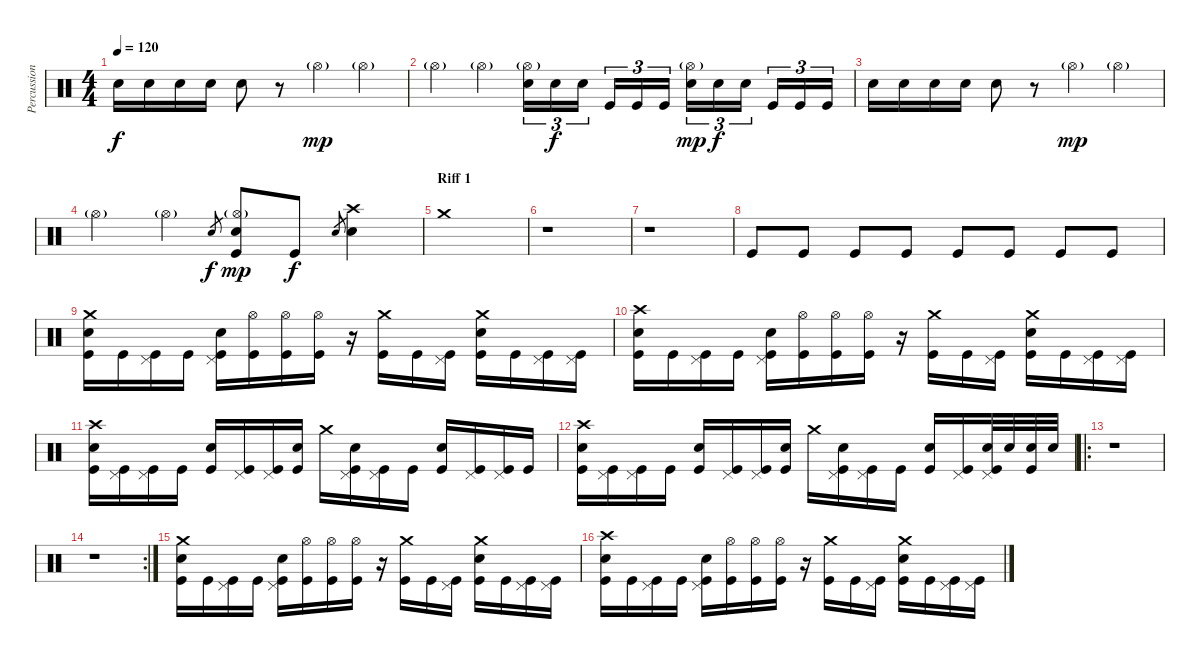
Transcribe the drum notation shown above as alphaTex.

\track ("Percussions" "Percussion") {instrument percussion}
\staff {score}
\articulation defaults
\ts (4 4)
\tempo 120
\clef neutral
\ks c "Electric Snare (hit)".16{dy f} "Electric Snare (hit)".16 "Electric Snare (hit)".16 "Electric Snare (hit)".16 "Electric Snare (hit)".8
r.8 "Hi-Hat (open)"{g}.4{dy mp} "Hi-Hat (open)"{g}.4 |
"Hi-Hat (open)"{g}.4 "Hi-Hat (open)"{g}.4 ("Hi-Hat (open)"{g} "Electric Snare (hit)").16{tu (3 2)} "Electric Snare (hit)".16{tu (3 2) dy f} "Electric Snare (hit)".16{tu (3 2)} "Kick (hit)".16{tu (3 2)} "Kick (hit)".16{tu (3 2)} "Kick (hit)".16{tu (3 2)} ("Hi-Hat (open)"{g} "Electric Snare (hit)").16{tu (3 2) dy mp} "Electric Snare (hit)".16{tu (3 2) dy f} "Electric Snare (hit)".16{tu (3 2)} "Kick (hit)".16{tu (3 2)} "Kick (hit)".16{tu (3 2)} "Kick (hit)".16{tu (3 2)} |
"Electric Snare (hit)".16 "Electric Snare (hit)".16 "Electric Snare (hit)".16 "Electric Snare (hit)".16 "Electric Snare (hit)".8 r.8 "Hi-Hat (open)"{g}.4{dy mp} "Hi-Hat (open)"{g}.4 |
"Hi-Hat (open)"{g}.4 "Hi-Hat (open)"{g}.4 "Electric Snare (hit)".8{gr dy f} ("Hi-Hat (open)"{g} "Electric Snare (hit)" "Kick (hit)").8{dy mp} "Kick (hit)".8{dy f} "Electric Snare (hit)".8{gr} ("Crash high (hit)" "Electric Snare (hit)").4 |
\section ("" "Riff 1")
"Crash medium (hit)".1 |
r.1 |
r.1 |
"Kick (hit)".8 "Kick (hit)".8 "Kick (hit)".8 "Kick (hit)".8 "Kick (hit)".8 "Kick (hit)".8 "Kick (hit)".8 "Kick (hit)".8 |
("Crash medium (hit)" "Kick (hit)" "Electric Snare (hit)").16 "Kick (hit)".16 ("Pedal Hi-Hat (hit)" "Kick (hit)").16 "Kick (hit)".16 ("Pedal Hi-Hat (hit)" "Kick (hit)" "Electric Snare (hit)").16 ("Hi-Hat (open)" "Kick (hit)").16 ("Hi-Hat (open)" "Kick (hit)").16 ("Hi-Hat (open)" "Kick (hit)").16 r.16 ("Crash medium (hit)" "Kick (hit)").16 "Kick (hit)".16 ("Pedal Hi-Hat (hit)" "Kick (hit)").16 ("Crash medium (hit)" "Kick (hit)" "Electric Snare (hit)").16 "Kick (hit)".16 ("Pedal Hi-Hat (hit)" "Kick (hit)").16 ("Pedal Hi-Hat (hit)" "Kick (hit)").16 |
("Crash high (hit)" "Kick (hit)" "Electric Snare (hit)").16 "Kick (hit)".16 ("Pedal Hi-Hat (hit)" "Kick (hit)").16 "Kick (hit)".16 ("Pedal Hi-Hat (hit)" "Kick (hit)" "Electric Snare (hit)").16 ("Hi-Hat (open)" "Kick (hit)").16 ("Hi-Hat (open)" "Kick (hit)").16 ("Hi-Hat (open)" "Kick (hit)").16 r.16 ("Crash medium (hit)" "Kick (hit)").16 "Kick (hit)".16 ("Pedal Hi-Hat (hit)" "Kick (hit)").16 ("Crash medium (hit)" "Kick (hit)" "Electric Snare (hit)").16 "Kick (hit)".16 ("Pedal Hi-Hat (hit)" "Kick (hit)").16 ("Pedal Hi-Hat (hit)" "Kick (hit)").16 |
("Crash high (hit)" "Electric Snare (hit)" "Kick (hit)").16 ("Pedal Hi-Hat (hit)" "Kick (hit)").16 ("Pedal Hi-Hat (hit)" "Kick (hit)").16 "Kick (hit)".16 ("Electric Snare (hit)" "Kick (hit)").16 ("Pedal Hi-Hat (hit)" "Kick (hit)").16 ("Pedal Hi-Hat (hit)" "Kick (hit)").16 ("Electric Snare (hit)" "Kick (hit)").16 "Crash medium (hit)".16 ("Pedal Hi-Hat (hit)" "Electric Snare (hit)" "Kick (hit)").16 ("Pedal Hi-Hat (hit)" "Kick (hit)").16 "Kick (hit)".16 ("Electric Snare (hit)" "Kick (hit)").16 ("Pedal Hi-Hat (hit)" "Kick (hit)").16 ("Pedal Hi-Hat (hit)" "Kick (hit)").16 "Kick (hit)".16 |
("Crash high (hit)" "Electric Snare (hit)" "Kick (hit)").16 ("Pedal Hi-Hat (hit)" "Kick (hit)").16 ("Pedal Hi-Hat (hit)" "Kick (hit)").16 "Kick (hit)".16 ("Electric Snare (hit)" "Kick (hit)").16 ("Pedal Hi-Hat (hit)" "Kick (hit)").16 ("Pedal Hi-Hat (hit)" "Kick (hit)").16 ("Electric Snare (hit)" "Kick (hit)").16 "Crash medium (hit)".16 ("Pedal Hi-Hat (hit)" "Electric Snare (hit)" "Kick (hit)").16 ("Pedal Hi-Hat (hit)" "Kick (hit)").16 "Kick (hit)".16 ("Electric Snare (hit)" "Kick (hit)").16 ("Pedal Hi-Hat (hit)" "Kick (hit)").16 ("Pedal Hi-Hat (hit)" "Electric Snare (hit)" "Kick (hit)").32 "Electric Snare (hit)".32 ("Electric Snare (hit)" "Kick (hit)").32 "Electric Snare (hit)".32 |
\ro
r.1 |
\rc 2
r.1 |
("Crash medium (hit)" "Kick (hit)" "Electric Snare (hit)").16 "Kick (hit)".16 ("Pedal Hi-Hat (hit)" "Kick (hit)").16 "Kick (hit)".16 ("Pedal Hi-Hat (hit)" "Kick (hit)" "Electric Snare (hit)").16 ("Hi-Hat (open)" "Kick (hit)").16 ("Hi-Hat (open)" "Kick (hit)").16 ("Hi-Hat (open)" "Kick (hit)").16 r.16 ("Crash medium (hit)" "Kick (hit)").16 "Kick (hit)".16 ("Pedal Hi-Hat (hit)" "Kick (hit)").16 ("Crash medium (hit)" "Kick (hit)" "Electric Snare (hit)").16 "Kick (hit)".16 ("Pedal Hi-Hat (hit)" "Kick (hit)").16 ("Pedal Hi-Hat (hit)" "Kick (hit)").16 |
("Crash high (hit)" "Kick (hit)" "Electric Snare (hit)").16 "Kick (hit)".16 ("Pedal Hi-Hat (hit)" "Kick (hit)").16 "Kick (hit)".16 ("Pedal Hi-Hat (hit)" "Kick (hit)" "Electric Snare (hit)").16 ("Hi-Hat (open)" "Kick (hit)").16 ("Hi-Hat (open)" "Kick (hit)").16 ("Hi-Hat (open)" "Kick (hit)").16 r.16 ("Crash medium (hit)" "Kick (hit)").16 "Kick (hit)".16 ("Pedal Hi-Hat (hit)" "Kick (hit)").16 ("Crash medium (hit)" "Kick (hit)" "Electric Snare (hit)").16 "Kick (hit)".16 ("Pedal Hi-Hat (hit)" "Kick (hit)").16 ("Pedal Hi-Hat (hit)" "Kick (hit)").16
